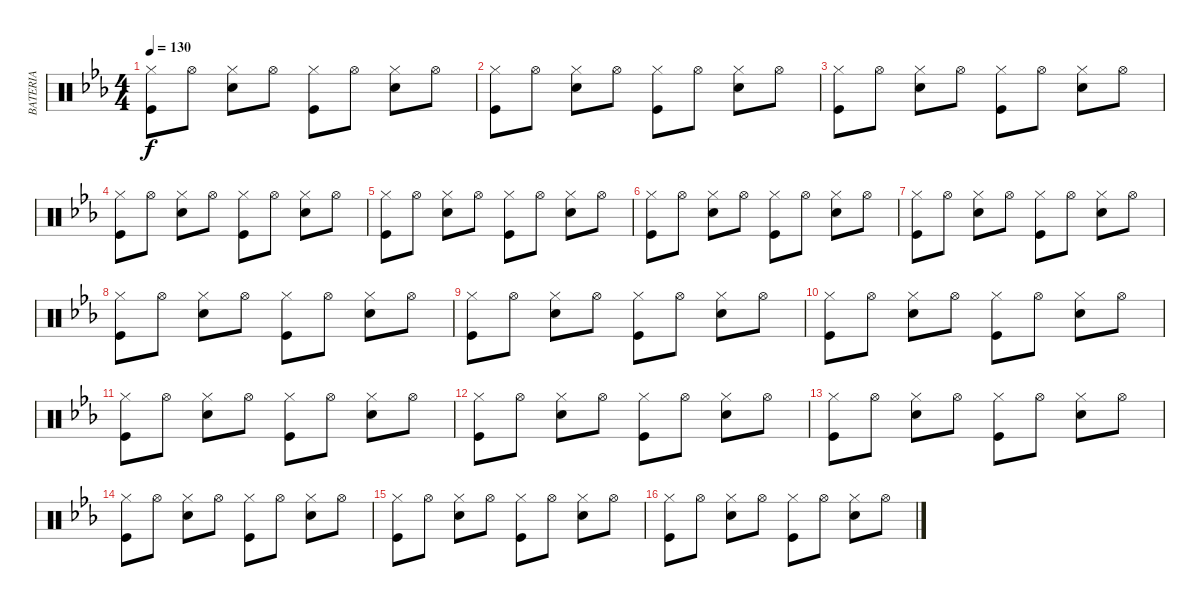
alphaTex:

\track ("BATERIA" "BATERIA") {instrument percussion}
\staff {score}
\articulation defaults
\ts (4 4)
\tempo 130
\clef neutral
\ks cminor
("Kick (hit)" "Hi-Hat (closed)").8{dy f} "Hi-Hat (open)".8 ("Hi-Hat (closed)" "Snare (hit) 2").8 "Hi-Hat (open)".8 ("Kick (hit)" "Hi-Hat (closed)").8 "Hi-Hat (open)".8 ("Hi-Hat (closed)" "Snare (hit) 2").8 "Hi-Hat (open)".8 |
("Kick (hit)" "Hi-Hat (closed)").8 "Hi-Hat (open)".8 ("Hi-Hat (closed)" "Snare (hit) 2").8 "Hi-Hat (open)".8 ("Kick (hit)" "Hi-Hat (closed)").8 "Hi-Hat (open)".8 ("Hi-Hat (closed)" "Snare (hit) 2").8 "Hi-Hat (open)".8 |
("Kick (hit)" "Hi-Hat (closed)").8 "Hi-Hat (open)".8 ("Hi-Hat (closed)" "Snare (hit) 2").8 "Hi-Hat (open)".8 ("Kick (hit)" "Hi-Hat (closed)").8 "Hi-Hat (open)".8 ("Hi-Hat (closed)" "Snare (hit) 2").8 "Hi-Hat (open)".8 |
("Kick (hit)" "Hi-Hat (closed)").8 "Hi-Hat (open)".8 ("Hi-Hat (closed)" "Snare (hit) 2").8 "Hi-Hat (open)".8 ("Kick (hit)" "Hi-Hat (closed)").8 "Hi-Hat (open)".8 ("Hi-Hat (closed)" "Snare (hit) 2").8 "Hi-Hat (open)".8 |
("Kick (hit)" "Hi-Hat (closed)").8 "Hi-Hat (open)".8 ("Hi-Hat (closed)" "Snare (hit) 2").8 "Hi-Hat (open)".8 ("Kick (hit)" "Hi-Hat (closed)").8 "Hi-Hat (open)".8 ("Hi-Hat (closed)" "Snare (hit) 2").8 "Hi-Hat (open)".8 |
("Kick (hit)" "Hi-Hat (closed)").8 "Hi-Hat (open)".8 ("Hi-Hat (closed)" "Snare (hit) 2").8 "Hi-Hat (open)".8 ("Kick (hit)" "Hi-Hat (closed)").8 "Hi-Hat (open)".8 ("Hi-Hat (closed)" "Snare (hit) 2").8 "Hi-Hat (open)".8 |
("Kick (hit)" "Hi-Hat (closed)").8 "Hi-Hat (open)".8 ("Hi-Hat (closed)" "Snare (hit) 2").8 "Hi-Hat (open)".8 ("Kick (hit)" "Hi-Hat (closed)").8 "Hi-Hat (open)".8 ("Hi-Hat (closed)" "Snare (hit) 2").8 "Hi-Hat (open)".8 |
("Kick (hit)" "Hi-Hat (closed)").8 "Hi-Hat (open)".8 ("Hi-Hat (closed)" "Snare (hit) 2").8 "Hi-Hat (open)".8 ("Kick (hit)" "Hi-Hat (closed)").8 "Hi-Hat (open)".8 ("Hi-Hat (closed)" "Snare (hit) 2").8 "Hi-Hat (open)".8 |
("Kick (hit)" "Hi-Hat (closed)").8 "Hi-Hat (open)".8 ("Hi-Hat (closed)" "Snare (hit) 2").8 "Hi-Hat (open)".8 ("Kick (hit)" "Hi-Hat (closed)").8 "Hi-Hat (open)".8 ("Hi-Hat (closed)" "Snare (hit) 2").8 "Hi-Hat (open)".8 |
("Kick (hit)" "Hi-Hat (closed)").8 "Hi-Hat (open)".8 ("Hi-Hat (closed)" "Snare (hit) 2").8 "Hi-Hat (open)".8 ("Kick (hit)" "Hi-Hat (closed)").8 "Hi-Hat (open)".8 ("Hi-Hat (closed)" "Snare (hit) 2").8 "Hi-Hat (open)".8 |
("Kick (hit)" "Hi-Hat (closed)").8 "Hi-Hat (open)".8 ("Hi-Hat (closed)" "Snare (hit) 2").8 "Hi-Hat (open)".8 ("Kick (hit)" "Hi-Hat (closed)").8 "Hi-Hat (open)".8 ("Hi-Hat (closed)" "Snare (hit) 2").8 "Hi-Hat (open)".8 |
("Kick (hit)" "Hi-Hat (closed)").8 "Hi-Hat (open)".8 ("Hi-Hat (closed)" "Snare (hit) 2").8 "Hi-Hat (open)".8 ("Kick (hit)" "Hi-Hat (closed)").8 "Hi-Hat (open)".8 ("Hi-Hat (closed)" "Snare (hit) 2").8 "Hi-Hat (open)".8 |
("Kick (hit)" "Hi-Hat (closed)").8 "Hi-Hat (open)".8 ("Hi-Hat (closed)" "Snare (hit) 2").8 "Hi-Hat (open)".8 ("Kick (hit)" "Hi-Hat (closed)").8 "Hi-Hat (open)".8 ("Hi-Hat (closed)" "Snare (hit) 2").8 "Hi-Hat (open)".8 |
("Kick (hit)" "Hi-Hat (closed)").8 "Hi-Hat (open)".8 ("Hi-Hat (closed)" "Snare (hit) 2").8 "Hi-Hat (open)".8 ("Kick (hit)" "Hi-Hat (closed)").8 "Hi-Hat (open)".8 ("Hi-Hat (closed)" "Snare (hit) 2").8 "Hi-Hat (open)".8 |
("Kick (hit)" "Hi-Hat (closed)").8 "Hi-Hat (open)".8 ("Hi-Hat (closed)" "Snare (hit) 2").8 "Hi-Hat (open)".8 ("Kick (hit)" "Hi-Hat (closed)").8 "Hi-Hat (open)".8 ("Hi-Hat (closed)" "Snare (hit) 2").8 "Hi-Hat (open)".8 |
("Kick (hit)" "Hi-Hat (closed)").8 "Hi-Hat (open)".8 ("Hi-Hat (closed)" "Snare (hit) 2").8 "Hi-Hat (open)".8 ("Kick (hit)" "Hi-Hat (closed)").8 "Hi-Hat (open)".8 ("Hi-Hat (closed)" "Snare (hit) 2").8 "Hi-Hat (open)".8
